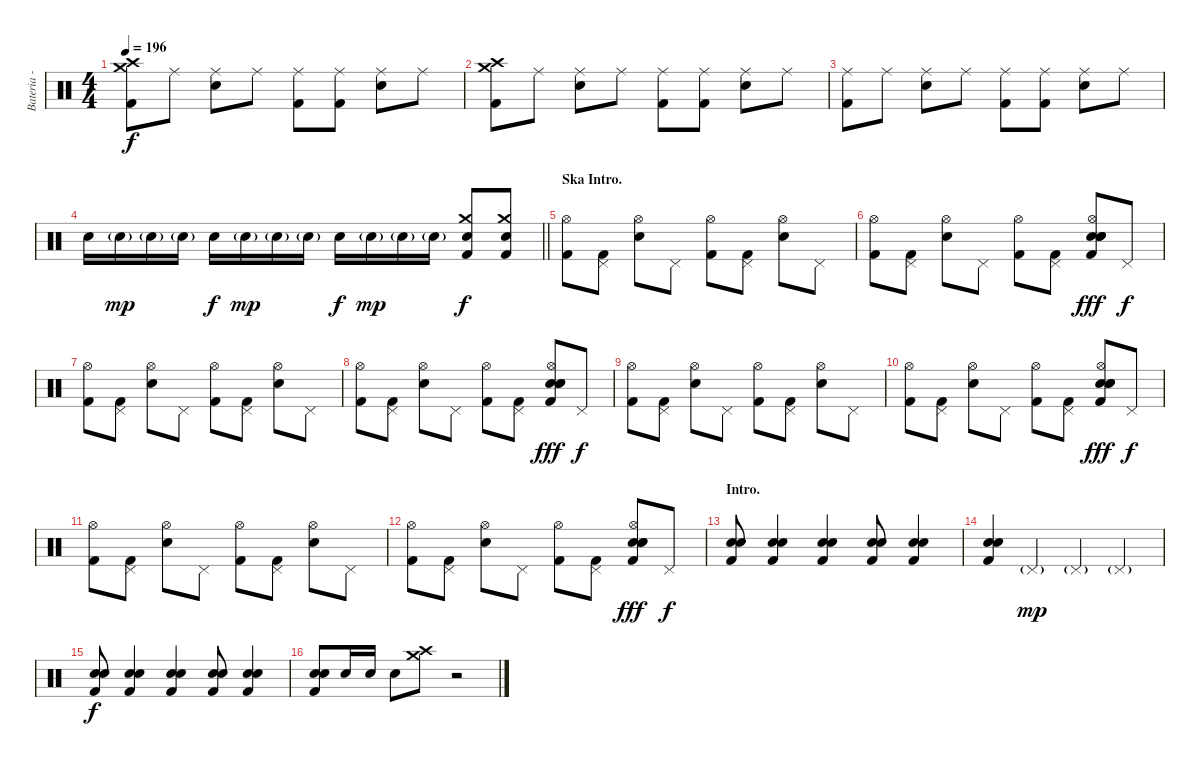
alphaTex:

\track ("Bateria - Larzon" "Bateria - ") {instrument percussion}
\staff {score}
\articulation defaults
\ts (4 4)
\tempo 196
\clef neutral
\ks c
("Kick (hit) 2" "Crash medium (hit)" "Crash high (hit)").8{dy f} "Ride (middle)".8 ("Snare (hit) 2" "Ride (middle)").8 "Ride (middle)".8 ("Kick (hit) 2" "Ride (middle)").8 ("Kick (hit) 2" "Ride (middle)").8 ("Snare (hit) 2" "Ride (middle)").8 "Ride (middle)".8 |
("Kick (hit) 2" "Crash medium (hit)" "Crash high (hit)").8 "Ride (middle)".8 ("Snare (hit) 2" "Ride (middle)").8 "Ride (middle)".8 ("Kick (hit) 2" "Ride (middle)").8 ("Kick (hit) 2" "Ride (middle)").8 ("Snare (hit) 2" "Ride (middle)").8 "Ride (middle)".8 |
("Kick (hit) 2" "Ride (middle)").8 "Ride (middle)".8 ("Snare (hit) 2" "Ride (middle)").8 "Ride (middle)".8 ("Kick (hit) 2" "Ride (middle)").8 ("Kick (hit) 2" "Ride (middle)").8 ("Snare (hit) 2" "Ride (middle)").8 "Ride (middle)".8 |
\barLineRight lightlight "Snare (hit) 2".16 "Snare (hit) 2"{g}.16{dy mp} "Snare (hit) 2"{g}.16 "Snare (hit) 2"{g}.16 "Snare (hit) 2".16{dy f} "Snare (hit) 2"{g}.16{dy mp} "Snare (hit) 2"{g}.16 "Snare (hit) 2"{g}.16 "Snare (hit) 2".16{dy f} "Snare (hit) 2"{g}.16{dy mp} "Snare (hit) 2"{g}.16 "Snare (hit) 2"{g}.16
("Snare (hit) 2" "Crash medium (hit)" "Kick (hit) 2").8{dy f} ("Snare (hit) 2" "Crash medium (hit)" "Kick (hit) 2").8 |
\section ("" "Ska Intro.")
("Kick (hit) 2" "Hi-Hat (open)").8 ("Kick (hit) 2" "Pedal Hi-Hat (hit)").8 ("Snare (hit) 2" "Hi-Hat (open)").8 "Pedal Hi-Hat (hit)".8 ("Kick (hit) 2" "Hi-Hat (open)").8 ("Kick (hit) 2" "Pedal Hi-Hat (hit)").8 ("Snare (hit) 2" "Hi-Hat (open)").8 "Pedal Hi-Hat (hit)".8 |
("Kick (hit) 2" "Hi-Hat (open)").8 ("Kick (hit) 2" "Pedal Hi-Hat (hit)").8 ("Snare (hit) 2" "Hi-Hat (open)").8 "Pedal Hi-Hat (hit)".8 ("Kick (hit) 2" "Hi-Hat (open)").8 ("Kick (hit) 2" "Pedal Hi-Hat (hit)").8 ("Snare (hit) 2" "Snare (hit) 2" "Electric Snare (hit)" "Kick (hit) 2" "Hi-Hat (open)").8{dy fff} "Pedal Hi-Hat (hit)".8{dy f} |
("Kick (hit) 2" "Hi-Hat (open)").8 ("Kick (hit) 2" "Pedal Hi-Hat (hit)").8 ("Snare (hit) 2" "Hi-Hat (open)").8 "Pedal Hi-Hat (hit)".8 ("Kick (hit) 2" "Hi-Hat (open)").8 ("Kick (hit) 2" "Pedal Hi-Hat (hit)").8 ("Snare (hit) 2" "Hi-Hat (open)").8 "Pedal Hi-Hat (hit)".8 |
("Kick (hit) 2" "Hi-Hat (open)").8 ("Kick (hit) 2" "Pedal Hi-Hat (hit)").8 ("Snare (hit) 2" "Hi-Hat (open)").8 "Pedal Hi-Hat (hit)".8 ("Kick (hit) 2" "Hi-Hat (open)").8 ("Kick (hit) 2" "Pedal Hi-Hat (hit)").8 ("Snare (hit) 2" "Snare (hit) 2" "Electric Snare (hit)" "Kick (hit) 2" "Hi-Hat (open)").8{dy fff} "Pedal Hi-Hat (hit)".8{dy f} |
("Kick (hit) 2" "Hi-Hat (open)").8 ("Kick (hit) 2" "Pedal Hi-Hat (hit)").8 ("Snare (hit) 2" "Hi-Hat (open)").8 "Pedal Hi-Hat (hit)".8 ("Kick (hit) 2" "Hi-Hat (open)").8 ("Kick (hit) 2" "Pedal Hi-Hat (hit)").8 ("Snare (hit) 2" "Hi-Hat (open)").8 "Pedal Hi-Hat (hit)".8 |
("Kick (hit) 2" "Hi-Hat (open)").8 ("Kick (hit) 2" "Pedal Hi-Hat (hit)").8 ("Snare (hit) 2" "Hi-Hat (open)").8 "Pedal Hi-Hat (hit)".8 ("Kick (hit) 2" "Hi-Hat (open)").8 ("Kick (hit) 2" "Pedal Hi-Hat (hit)").8 ("Snare (hit) 2" "Snare (hit) 2" "Electric Snare (hit)" "Kick (hit) 2" "Hi-Hat (open)").8{dy fff} "Pedal Hi-Hat (hit)".8{dy f} |
("Kick (hit) 2" "Hi-Hat (open)").8 ("Kick (hit) 2" "Pedal Hi-Hat (hit)").8 ("Snare (hit) 2" "Hi-Hat (open)").8 "Pedal Hi-Hat (hit)".8 ("Kick (hit) 2" "Hi-Hat (open)").8 ("Kick (hit) 2" "Pedal Hi-Hat (hit)").8 ("Snare (hit) 2" "Hi-Hat (open)").8 "Pedal Hi-Hat (hit)".8 |
("Kick (hit) 2" "Hi-Hat (open)").8 ("Kick (hit) 2" "Pedal Hi-Hat (hit)").8 ("Snare (hit) 2" "Hi-Hat (open)").8 "Pedal Hi-Hat (hit)".8 ("Kick (hit) 2" "Hi-Hat (open)").8 ("Kick (hit) 2" "Pedal Hi-Hat (hit)").8 ("Snare (hit) 2" "Snare (hit) 2" "Electric Snare (hit)" "Kick (hit) 2" "Hi-Hat (open)").8{dy fff} "Pedal Hi-Hat (hit)".8{dy f} |
\section ("" "Intro.")
("Electric Snare (hit)" "Kick (hit) 2" "Snare (hit) 2").8 ("Electric Snare (hit)" "Kick (hit) 2" "Snare (hit) 2").4 ("Electric Snare (hit)" "Kick (hit) 2" "Snare (hit) 2").4 ("Electric Snare (hit)" "Kick (hit) 2" "Snare (hit) 2").8 ("Electric Snare (hit)" "Kick (hit) 2" "Snare (hit) 2").4 |
("Electric Snare (hit)" "Kick (hit) 2" "Snare (hit) 2").4 "Pedal Hi-Hat (hit)"{g}.4{dy mp} "Pedal Hi-Hat (hit)"{g}.4 "Pedal Hi-Hat (hit)"{g}.4 |
("Electric Snare (hit)" "Kick (hit) 2" "Snare (hit) 2").8{dy f} ("Electric Snare (hit)" "Kick (hit) 2" "Snare (hit) 2").4 ("Electric Snare (hit)" "Kick (hit) 2" "Snare (hit) 2").4 ("Electric Snare (hit)" "Kick (hit) 2" "Snare (hit) 2").8 ("Electric Snare (hit)" "Kick (hit) 2" "Snare (hit) 2").4 |
("Electric Snare (hit)" "Kick (hit) 2" "Snare (hit) 2").8 "Electric Snare (hit)".16 "Electric Snare (hit)".16 "Electric Snare (hit)".8 ("Crash medium (hit)" "Crash high (hit)").8 r.2
